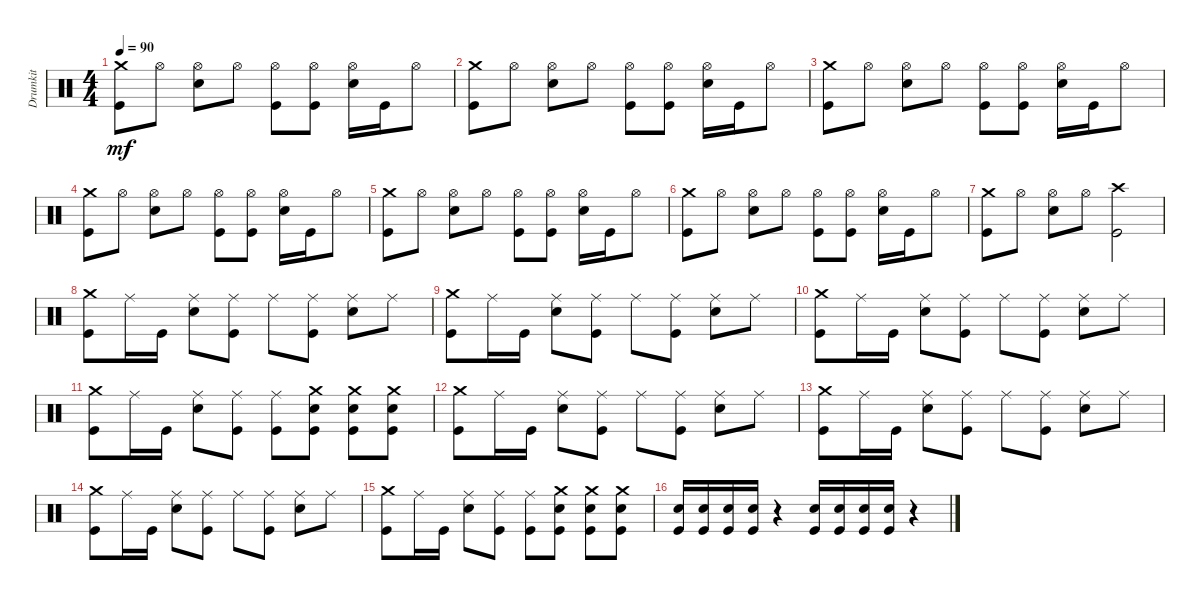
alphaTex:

\track ("Drumkit" "Drumkit") {instrument percussion}
\staff {score}
\articulation defaults
\ts (4 4)
\tempo 90
\clef neutral
\ks c
("Crash medium (hit)" "Kick (hit)").8{dy mf} "Hi-Hat (open)".8 ("Snare (hit) 2" "Hi-Hat (open)").8 "Hi-Hat (open)".8 ("Kick (hit)" "Hi-Hat (open)").8 ("Kick (hit)" "Hi-Hat (open)").8 ("Snare (hit) 2" "Hi-Hat (open)").16 "Kick (hit)".16 "Hi-Hat (open)".8 |
("Crash medium (hit)" "Kick (hit)").8 "Hi-Hat (open)".8 ("Snare (hit) 2" "Hi-Hat (open)").8 "Hi-Hat (open)".8 ("Kick (hit)" "Hi-Hat (open)").8 ("Kick (hit)" "Hi-Hat (open)").8 ("Snare (hit) 2" "Hi-Hat (open)").16 "Kick (hit)".16 "Hi-Hat (open)".8 |
("Crash medium (hit)" "Kick (hit)").8 "Hi-Hat (open)".8 ("Snare (hit) 2" "Hi-Hat (open)").8 "Hi-Hat (open)".8 ("Kick (hit)" "Hi-Hat (open)").8 ("Kick (hit)" "Hi-Hat (open)").8 ("Snare (hit) 2" "Hi-Hat (open)").16 "Kick (hit)".16 "Hi-Hat (open)".8 |
("Crash medium (hit)" "Kick (hit)").8 "Hi-Hat (open)".8 ("Snare (hit) 2" "Hi-Hat (open)").8 "Hi-Hat (open)".8 ("Kick (hit)" "Hi-Hat (open)").8 ("Kick (hit)" "Hi-Hat (open)").8 ("Snare (hit) 2" "Hi-Hat (open)").16 "Kick (hit)".16 "Hi-Hat (open)".8 |
("Crash medium (hit)" "Kick (hit)").8 "Hi-Hat (open)".8 ("Snare (hit) 2" "Hi-Hat (open)").8 "Hi-Hat (open)".8 ("Kick (hit)" "Hi-Hat (open)").8 ("Kick (hit)" "Hi-Hat (open)").8 ("Snare (hit) 2" "Hi-Hat (open)").16 "Kick (hit)".16 "Hi-Hat (open)".8 |
("Crash medium (hit)" "Kick (hit)").8 "Hi-Hat (open)".8 ("Snare (hit) 2" "Hi-Hat (open)").8 "Hi-Hat (open)".8 ("Kick (hit)" "Hi-Hat (open)").8 ("Kick (hit)" "Hi-Hat (open)").8 ("Snare (hit) 2" "Hi-Hat (open)").16 "Kick (hit)".16 "Hi-Hat (open)".8 |
("Crash medium (hit)" "Kick (hit)").8 "Hi-Hat (open)".8 ("Snare (hit) 2" "Hi-Hat (open)").8 "Hi-Hat (open)".8 ("Kick (hit)" "Crash high (hit)").2 |
("Crash medium (hit)" "Kick (hit)").8 "Ride (middle)".16 "Kick (hit)".16 ("Snare (hit) 2" "Ride (middle)").8 ("Kick (hit)" "Ride (middle)").8 "Ride (middle)".8 ("Kick (hit)" "Ride (middle)").8 ("Snare (hit) 2" "Ride (middle)").8 "Ride (middle)".8 |
("Crash medium (hit)" "Kick (hit)").8 "Ride (middle)".16 "Kick (hit)".16 ("Snare (hit) 2" "Ride (middle)").8 ("Kick (hit)" "Ride (middle)").8 "Ride (middle)".8 ("Kick (hit)" "Ride (middle)").8 ("Snare (hit) 2" "Ride (middle)").8 "Ride (middle)".8 |
("Crash medium (hit)" "Kick (hit)").8 "Ride (middle)".16 "Kick (hit)".16 ("Snare (hit) 2" "Ride (middle)").8 ("Kick (hit)" "Ride (middle)").8 "Ride (middle)".8 ("Kick (hit)" "Ride (middle)").8 ("Snare (hit) 2" "Ride (middle)").8 "Ride (middle)".8 |
("Crash medium (hit)" "Kick (hit)").8 "Ride (middle)".16 "Kick (hit)".16 ("Snare (hit) 2" "Ride (middle)").8 ("Kick (hit)" "Ride (middle)").8 ("Kick (hit)" "Ride (middle)").8 ("Snare (hit) 2" "Kick (hit)" "Crash medium (hit)").8 ("Snare (hit) 2" "Kick (hit)" "Crash medium (hit)").8 ("Snare (hit) 2" "Kick (hit)" "Crash medium (hit)").8 |
("Crash medium (hit)" "Kick (hit)").8 "Ride (middle)".16 "Kick (hit)".16 ("Snare (hit) 2" "Ride (middle)").8 ("Kick (hit)" "Ride (middle)").8 "Ride (middle)".8 ("Kick (hit)" "Ride (middle)").8 ("Snare (hit) 2" "Ride (middle)").8 "Ride (middle)".8 |
("Crash medium (hit)" "Kick (hit)").8 "Ride (middle)".16 "Kick (hit)".16 ("Snare (hit) 2" "Ride (middle)").8 ("Kick (hit)" "Ride (middle)").8 "Ride (middle)".8 ("Kick (hit)" "Ride (middle)").8 ("Snare (hit) 2" "Ride (middle)").8 "Ride (middle)".8 |
("Crash medium (hit)" "Kick (hit)").8 "Ride (middle)".16 "Kick (hit)".16 ("Snare (hit) 2" "Ride (middle)").8 ("Kick (hit)" "Ride (middle)").8 "Ride (middle)".8 ("Kick (hit)" "Ride (middle)").8 ("Snare (hit) 2" "Ride (middle)").8 "Ride (middle)".8 |
("Crash medium (hit)" "Kick (hit)").8 "Ride (middle)".16 "Kick (hit)".16 ("Snare (hit) 2" "Ride (middle)").8 ("Kick (hit)" "Ride (middle)").8 ("Kick (hit)" "Ride (middle)").8 ("Snare (hit) 2" "Kick (hit)" "Crash medium (hit)").8 ("Snare (hit) 2" "Kick (hit)" "Crash medium (hit)").8 ("Snare (hit) 2" "Kick (hit)" "Crash medium (hit)").8 |
("Snare (hit) 2" "Kick (hit)").16 ("Snare (hit) 2" "Kick (hit)").16 ("Snare (hit) 2" "Kick (hit)").16 ("Snare (hit) 2" "Kick (hit)").16 r.4 ("Snare (hit) 2" "Kick (hit)").16 ("Snare (hit) 2" "Kick (hit)").16 ("Snare (hit) 2" "Kick (hit)").16 ("Snare (hit) 2" "Kick (hit)").16 r.4
